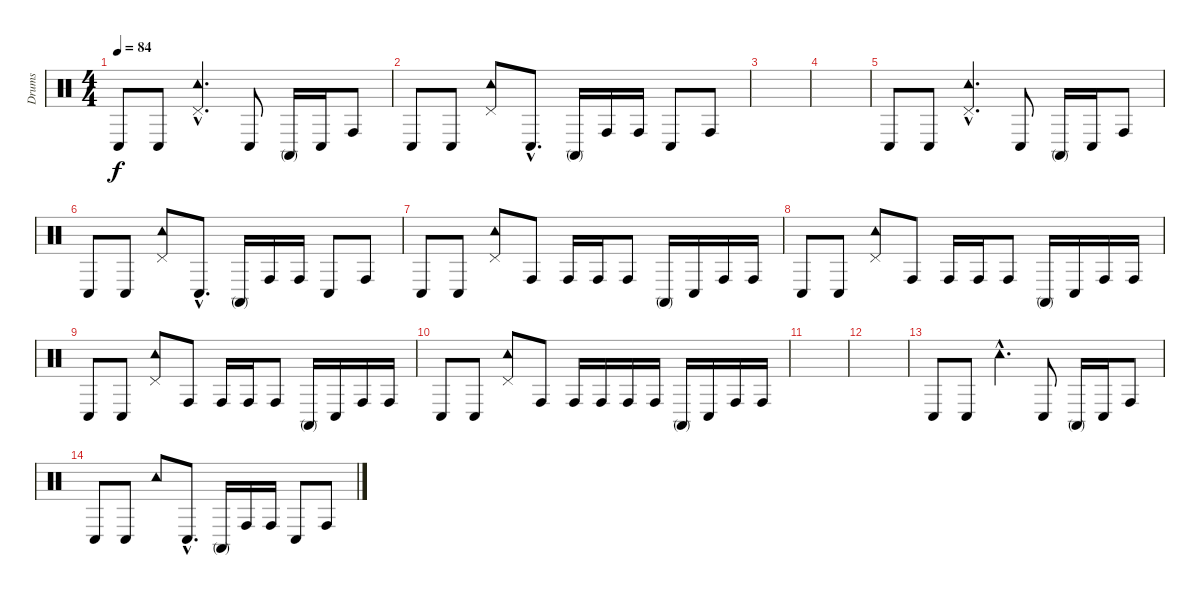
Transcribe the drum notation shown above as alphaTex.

\track ("Drums" "Drums") {instrument percussion}
\staff {score}
\articulation defaults
\ts (4 4)
\tempo 84
\clef neutral
\ks c "Conga low (hit)".8{dy f} "Conga low (hit)".8
("Pedal Hi-Hat (hit)"{hac} "Tambourine (hit)"{hac}).4{d} "Conga low (hit)".8 "Conga high (mute)".16 "Conga low (hit)".16 "Conga high (hit)".8 |
"Conga low (hit)".8 "Conga low (hit)".8 ("Pedal Hi-Hat (hit)" "Tambourine (hit)").8 "Conga low (hit)"{hac}.8{d} "Conga high (mute)".16 "Conga high (hit)".16 "Conga high (hit)".16 "Conga low (hit)".8 "Conga high (hit)".8 |
|
|
"Conga low (hit)".8 "Conga low (hit)".8 ("Pedal Hi-Hat (hit)"{hac} "Tambourine (hit)"{hac}).4{d} "Conga low (hit)".8 "Conga high (mute)".16 "Conga low (hit)".16 "Conga high (hit)".8 |
"Conga low (hit)".8 "Conga low (hit)".8 ("Pedal Hi-Hat (hit)" "Tambourine (hit)").8 "Conga low (hit)"{hac}.8{d} "Conga high (mute)".16 "Conga high (hit)".16 "Conga high (hit)".16 "Conga low (hit)".8 "Conga high (hit)".8 |
"Conga low (hit)".8 "Conga low (hit)".8 ("Pedal Hi-Hat (hit)" "Tambourine (hit)").8 "Conga high (hit)".8 "Conga high (hit)".16 "Conga high (hit)".16 "Conga high (hit)".8 "Conga high (mute)".16 "Conga low (hit)".16 "Conga high (hit)".16 "Conga high (hit)".16 |
"Conga low (hit)".8 "Conga low (hit)".8 ("Pedal Hi-Hat (hit)" "Tambourine (hit)").8 "Conga high (hit)".8 "Conga high (hit)".16 "Conga high (hit)".16 "Conga high (hit)".8 "Conga high (mute)".16 "Conga low (hit)".16 "Conga high (hit)".16 "Conga high (hit)".16 |
"Conga low (hit)".8 "Conga low (hit)".8 ("Pedal Hi-Hat (hit)" "Tambourine (hit)").8 "Conga high (hit)".8 "Conga high (hit)".16 "Conga high (hit)".16 "Conga high (hit)".8 "Conga high (mute)".16 "Conga low (hit)".16 "Conga high (hit)".16 "Conga high (hit)".16 |
"Conga low (hit)".8 "Conga low (hit)".8 ("Pedal Hi-Hat (hit)" "Tambourine (hit)").8 "Conga high (hit)".8 "Conga high (hit)".16 "Conga high (hit)".16 "Conga high (hit)".16 "Conga high (hit)".16 "Conga high (mute)".16 "Conga low (hit)".16 "Conga high (hit)".16 "Conga high (hit)".16 |
|
|
"Conga low (hit)".8 "Conga low (hit)".8 "Tambourine (hit)"{hac}.4{d} "Conga low (hit)".8 "Conga high (mute)".16 "Conga low (hit)".16 "Conga high (hit)".8 |
"Conga low (hit)".8 "Conga low (hit)".8 "Tambourine (hit)".8 "Conga low (hit)"{hac}.8{d} "Conga high (mute)".16 "Conga high (hit)".16 "Conga high (hit)".16 "Conga low (hit)".8 "Conga high (hit)".8
